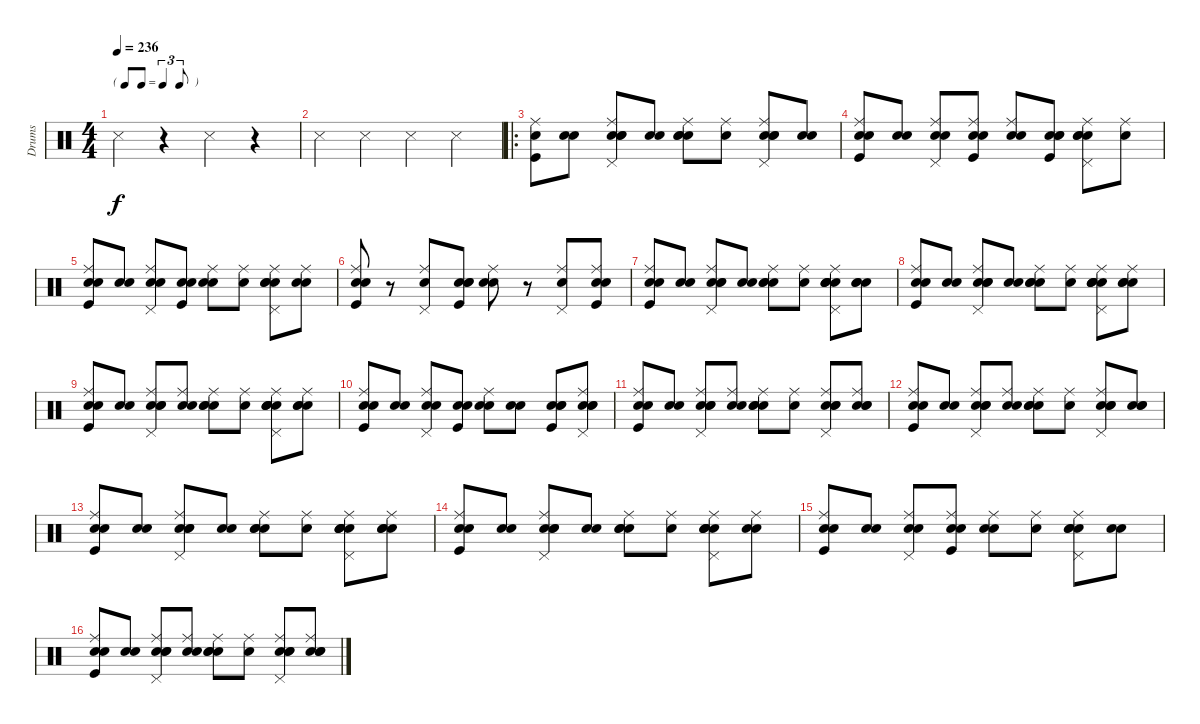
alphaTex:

\track ("Drums" "Drums") {instrument percussion}
\staff {score}
\articulation defaults
\ts (4 4)
\tf triplet8th
\tempo 236
\clef neutral
\ks c "Snare (side stick) 3".4{dy f}
r.4 "Snare (side stick) 3".4 r.4 |
"Snare (side stick) 3".4 "Snare (side stick) 3".4 "Snare (side stick) 3".4 "Snare (side stick) 3".4 |
\ro
("Kick (hit)" "Electric Snare (hit)" "Ride (middle)").8 ("Snare (hit)" "Electric Snare (hit)").8 ("Snare (hit)" "Snare (hit) 2" "Electric Snare (hit)" "Ride (middle)" "Pedal Hi-Hat (hit)").8 ("Snare (hit)" "Snare (hit) 2").8 ("Snare (hit)" "Snare (hit) 2" "Electric Snare (hit)" "Ride (middle)").8 ("Snare (hit)" "Ride (middle)").8 ("Snare (hit)" "Snare (hit) 2" "Electric Snare (hit)" "Ride (middle)" "Pedal Hi-Hat (hit)").8 ("Snare (hit)" "Snare (hit) 2").8 |
("Snare (hit)" "Kick (hit)" "Electric Snare (hit)" "Ride (middle)").8 ("Snare (hit)" "Electric Snare (hit)").8 ("Snare (hit)" "Snare (hit) 2" "Ride (middle)" "Pedal Hi-Hat (hit)").8 ("Snare (hit)" "Kick (hit)" "Snare (hit) 2" "Ride (middle)").8 ("Snare (hit)" "Electric Snare (hit)" "Ride (middle)").8 ("Snare (hit)" "Kick (hit)" "Electric Snare (hit)" "Hand Clap (hit)").8 ("Snare (hit)" "Electric Snare (hit)" "Ride (middle)" "Pedal Hi-Hat (hit)" "Hand Clap (hit)").8 ("Snare (hit)" "Ride (middle)").8 |
("Snare (hit)" "Kick (hit)" "Electric Snare (hit)" "Ride (middle)").8 ("Snare (hit)" "Electric Snare (hit)").8 ("Snare (hit)" "Snare (hit) 2" "Ride (middle)" "Pedal Hi-Hat (hit)").8 ("Snare (hit)" "Kick (hit)" "Hand Clap (hit)").8 ("Snare (hit)" "Electric Snare (hit)" "Ride (middle)").8 ("Snare (hit)" "Ride (middle)").8 ("Snare (hit)" "Snare (hit) 2" "Ride (middle)" "Pedal Hi-Hat (hit)" "Hand Clap (hit)").8 ("Snare (hit)" "Snare (hit) 2" "Ride (middle)").8 |
("Snare (hit)" "Kick (hit)" "Electric Snare (hit)" "Ride (middle)").8 r.8 ("Snare (hit) 2" "Ride (middle)" "Pedal Hi-Hat (hit)").8 ("Snare (hit)" "Kick (hit)" "Snare (hit) 2" "Hand Clap (hit)").8 ("Snare (hit)" "Electric Snare (hit)" "Ride (middle)").8 r.8 ("Snare (hit) 2" "Ride (middle)" "Pedal Hi-Hat (hit)").8 ("Snare (hit)" "Kick (hit)" "Ride (middle)" "Hand Clap (hit)").8 |
("Snare (hit)" "Kick (hit)" "Electric Snare (hit)" "Ride (middle)").8 ("Snare (hit)" "Electric Snare (hit)").8 ("Snare (hit)" "Snare (hit) 2" "Electric Snare (hit)" "Ride (middle)" "Pedal Hi-Hat (hit)").8 ("Snare (hit)" "Snare (hit) 2").8 ("Snare (hit)" "Snare (hit) 2" "Electric Snare (hit)" "Ride (middle)").8 ("Snare (hit)" "Ride (middle)").8 ("Snare (hit)" "Snare (hit) 2" "Electric Snare (hit)" "Ride (middle)" "Pedal Hi-Hat (hit)" "Hand Clap (hit)").8 ("Snare (hit)" "Snare (hit) 2" "Hand Clap (hit)").8 |
("Snare (hit)" "Kick (hit)" "Electric Snare (hit)" "Ride (middle)").8 ("Snare (hit)" "Electric Snare (hit)").8 ("Snare (hit)" "Snare (hit) 2" "Electric Snare (hit)" "Ride (middle)" "Pedal Hi-Hat (hit)").8 ("Snare (hit)" "Snare (hit) 2").8 ("Snare (hit)" "Snare (hit) 2" "Electric Snare (hit)" "Ride (middle)").8 ("Snare (hit)" "Ride (middle)").8 ("Snare (hit)" "Snare (hit) 2" "Electric Snare (hit)" "Ride (middle)" "Pedal Hi-Hat (hit)" "Hand Clap (hit)").8 ("Snare (hit)" "Snare (hit) 2" "Ride (middle)" "Hand Clap (hit)").8 |
("Snare (hit)" "Kick (hit)" "Electric Snare (hit)" "Ride (middle)").8 ("Snare (hit)" "Electric Snare (hit)").8 ("Snare (hit)" "Snare (hit) 2" "Electric Snare (hit)" "Ride (middle)" "Pedal Hi-Hat (hit)").8 ("Snare (hit)" "Snare (hit) 2" "Ride (middle)").8 ("Snare (hit)" "Snare (hit) 2" "Electric Snare (hit)" "Ride (middle)").8 ("Snare (hit)" "Ride (middle)").8 ("Snare (hit)" "Snare (hit) 2" "Electric Snare (hit)" "Ride (middle)" "Pedal Hi-Hat (hit)" "Hand Clap (hit)").8 ("Snare (hit)" "Snare (hit) 2" "Ride (middle)" "Hand Clap (hit)").8 |
("Snare (hit)" "Kick (hit)" "Electric Snare (hit)" "Ride (middle)").8 ("Snare (hit)" "Electric Snare (hit)").8 ("Snare (hit)" "Snare (hit) 2" "Ride (middle)" "Pedal Hi-Hat (hit)").8 ("Snare (hit)" "Kick (hit)" "Hand Clap (hit)").8 ("Snare (hit)" "Electric Snare (hit)" "Ride (middle)").8 ("Snare (hit)" "Snare (hit) 2").8 ("Snare (hit)" "Kick (hit)" "Electric Snare (hit)" "Hand Clap (hit)").8 ("Snare (hit)" "Electric Snare (hit)" "Ride (middle)" "Pedal Hi-Hat (hit)" "Hand Clap (hit)").8 |
("Snare (hit)" "Kick (hit)" "Electric Snare (hit)" "Ride (middle)").8 ("Snare (hit)" "Electric Snare (hit)").8 ("Snare (hit)" "Snare (hit) 2" "Electric Snare (hit)" "Ride (middle)" "Pedal Hi-Hat (hit)").8 ("Snare (hit)" "Snare (hit) 2" "Ride (middle)").8 ("Snare (hit)" "Snare (hit) 2" "Electric Snare (hit)" "Ride (middle)").8 ("Snare (hit)" "Ride (middle)").8 ("Snare (hit)" "Snare (hit) 2" "Electric Snare (hit)" "Ride (middle)" "Pedal Hi-Hat (hit)").8 ("Snare (hit)" "Snare (hit) 2" "Ride (middle)" "Hand Clap (hit)").8 |
("Snare (hit)" "Kick (hit)" "Electric Snare (hit)" "Ride (middle)").8 ("Snare (hit)" "Electric Snare (hit)").8 ("Snare (hit)" "Snare (hit) 2" "Electric Snare (hit)" "Ride (middle)" "Pedal Hi-Hat (hit)").8 ("Snare (hit)" "Snare (hit) 2" "Ride (middle)").8 ("Snare (hit)" "Snare (hit) 2" "Electric Snare (hit)" "Ride (middle)").8 ("Snare (hit)" "Ride (middle)").8 ("Snare (hit)" "Snare (hit) 2" "Electric Snare (hit)" "Ride (middle)" "Pedal Hi-Hat (hit)").8 ("Snare (hit)" "Snare (hit) 2" "Hand Clap (hit)").8 |
("Snare (hit)" "Kick (hit)" "Electric Snare (hit)" "Ride (middle)").8 ("Snare (hit)" "Electric Snare (hit)").8 ("Snare (hit)" "Snare (hit) 2" "Electric Snare (hit)" "Ride (middle)" "Pedal Hi-Hat (hit)").8 ("Snare (hit)" "Snare (hit) 2").8 ("Snare (hit)" "Snare (hit) 2" "Electric Snare (hit)" "Ride (middle)").8 ("Snare (hit)" "Ride (middle)").8 ("Snare (hit)" "Snare (hit) 2" "Electric Snare (hit)" "Ride (middle)" "Pedal Hi-Hat (hit)" "Hand Clap (hit)").8 ("Snare (hit)" "Snare (hit) 2" "Ride (middle)" "Hand Clap (hit)").8 |
("Snare (hit)" "Kick (hit)" "Electric Snare (hit)" "Ride (middle)").8 ("Snare (hit)" "Electric Snare (hit)").8 ("Snare (hit)" "Snare (hit) 2" "Electric Snare (hit)" "Ride (middle)" "Pedal Hi-Hat (hit)").8 ("Snare (hit)" "Snare (hit) 2").8 ("Snare (hit)" "Snare (hit) 2" "Electric Snare (hit)" "Ride (middle)").8 ("Snare (hit)" "Ride (middle)").8 ("Snare (hit)" "Snare (hit) 2" "Electric Snare (hit)" "Ride (middle)" "Pedal Hi-Hat (hit)" "Hand Clap (hit)").8 ("Snare (hit)" "Snare (hit) 2" "Ride (middle)").8 |
("Snare (hit)" "Kick (hit)" "Electric Snare (hit)" "Ride (middle)").8 ("Snare (hit)" "Electric Snare (hit)").8 ("Snare (hit)" "Snare (hit) 2" "Ride (middle)" "Pedal Hi-Hat (hit)").8 ("Snare (hit)" "Kick (hit)" "Snare (hit) 2" "Ride (middle)").8 ("Snare (hit)" "Electric Snare (hit)" "Ride (middle)").8 ("Snare (hit)" "Ride (middle)").8 ("Snare (hit)" "Snare (hit) 2" "Ride (middle)" "Pedal Hi-Hat (hit)" "Hand Clap (hit)").8 ("Snare (hit)" "Hand Clap (hit)").8 |
("Snare (hit)" "Kick (hit)" "Electric Snare (hit)" "Ride (middle)").8 ("Snare (hit)" "Electric Snare (hit)").8 ("Snare (hit)" "Snare (hit) 2" "Electric Snare (hit)" "Ride (middle)" "Pedal Hi-Hat (hit)").8 ("Snare (hit)" "Snare (hit) 2" "Ride (middle)").8 ("Snare (hit)" "Snare (hit) 2" "Electric Snare (hit)" "Ride (middle)").8 ("Snare (hit)" "Ride (middle)").8 ("Snare (hit)" "Snare (hit) 2" "Electric Snare (hit)" "Ride (middle)" "Pedal Hi-Hat (hit)").8 ("Snare (hit)" "Snare (hit) 2" "Ride (middle)" "Hand Clap (hit)").8
